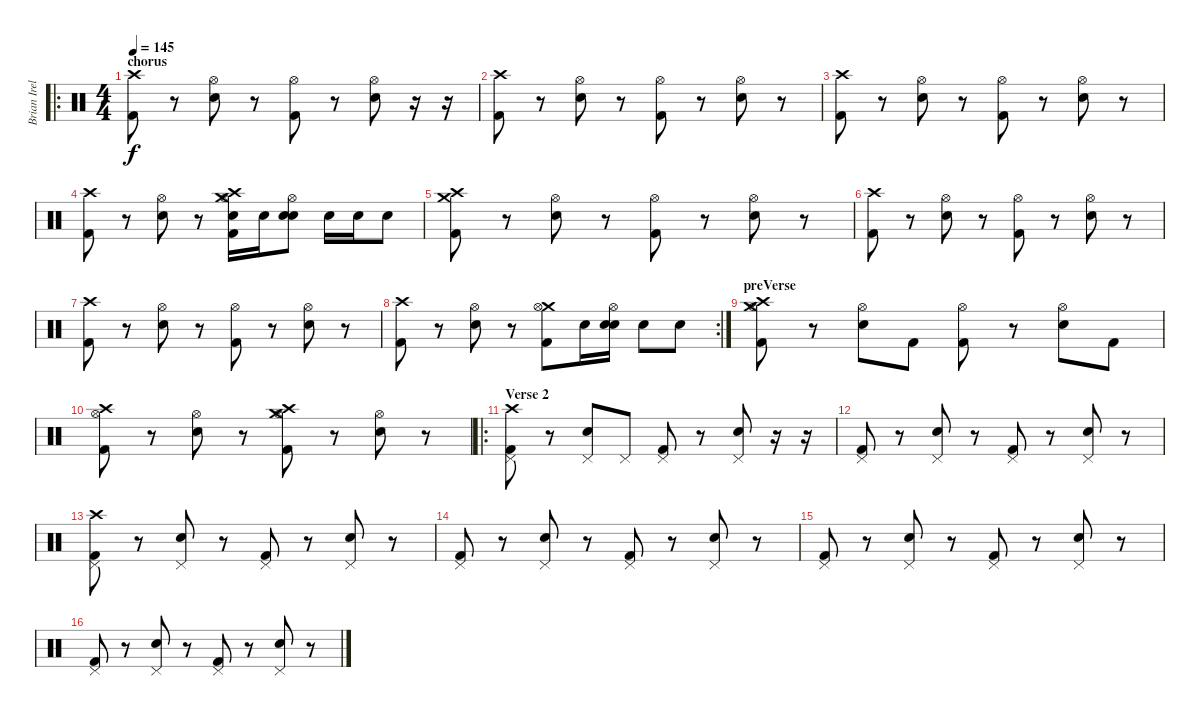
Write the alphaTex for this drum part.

\track ("Brian Ireland" "Brian Irel") {instrument percussion}
\staff {score}
\articulation defaults
\ro
\ts (4 4)
\section ("" "chorus")
\tempo 145
\clef neutral
\ks c
("Crash high (hit)" "Kick (hit) 2").8{dy f} r.8 ("Hi-Hat (open)" "Electric Snare (hit)").8 r.8 ("Hi-Hat (open)" "Kick (hit) 2").8 r.8 ("Hi-Hat (open)" "Electric Snare (hit)").8 r.16 r.16 |
("Crash high (hit)" "Kick (hit) 2").8 r.8 ("Hi-Hat (open)" "Electric Snare (hit)").8 r.8 ("Hi-Hat (open)" "Kick (hit) 2").8 r.8 ("Hi-Hat (open)" "Electric Snare (hit)").8 r.8 |
("Crash high (hit)" "Kick (hit) 2").8 r.8 ("Hi-Hat (open)" "Electric Snare (hit)").8 r.8 ("Hi-Hat (open)" "Kick (hit) 2").8 r.8 ("Hi-Hat (open)" "Electric Snare (hit)").8 r.8 |
("Crash high (hit)" "Kick (hit) 2").8 r.8 ("Hi-Hat (open)" "Electric Snare (hit)").8 r.8 ("Crash medium (hit)" "Crash high (hit)" "Electric Snare (hit)" "Hi-Hat (open)" "Kick (hit) 2").16 "Electric Snare (hit)".16 ("Electric Snare (hit)" "Hi-Hat (open)" "Electric Snare (hit)").8 "Electric Snare (hit)".16 "Electric Snare (hit)".16 "Electric Snare (hit)".8 |
("Crash medium (hit)" "Crash high (hit)" "Kick (hit) 2").8 r.8 ("Hi-Hat (open)" "Electric Snare (hit)").8 r.8 ("Hi-Hat (open)" "Kick (hit) 2").8 r.8 ("Hi-Hat (open)" "Electric Snare (hit)").8 r.8 |
("Crash high (hit)" "Kick (hit) 2").8 r.8 ("Hi-Hat (open)" "Electric Snare (hit)").8 r.8 ("Hi-Hat (open)" "Kick (hit) 2").8 r.8 ("Hi-Hat (open)" "Electric Snare (hit)").8 r.8 |
("Crash high (hit)" "Kick (hit) 2").8 r.8 ("Hi-Hat (open)" "Electric Snare (hit)").8 r.8 ("Hi-Hat (open)" "Kick (hit) 2").8 r.8 ("Hi-Hat (open)" "Electric Snare (hit)").8 r.8 |
\rc 2
("Crash high (hit)" "Kick (hit) 2").8 r.8 ("Hi-Hat (open)" "Electric Snare (hit)").8 r.8 ("Crash medium (hit)" "Hi-Hat (open)" "Kick (hit) 2").8 "Electric Snare (hit)".16 ("Electric Snare (hit)" "Hi-Hat (open)" "Electric Snare (hit)").16 "Electric Snare (hit)".8 "Electric Snare (hit)".8 |
\section ("" "preVerse")
("Crash high (hit)" "Crash medium (hit)" "Hi-Hat (open)" "Kick (hit) 2").8 r.8 ("Hi-Hat (open)" "Electric Snare (hit)").8 "Kick (hit) 2".8 ("Hi-Hat (open)" "Kick (hit) 2").8 r.8 ("Hi-Hat (open)" "Electric Snare (hit)").8 "Kick (hit) 2".8 |
("Crash high (hit)" "Hi-Hat (open)" "Kick (hit) 2").8 r.8 ("Electric Snare (hit)" "Hi-Hat (open)").8 r.8 ("Crash high (hit)" "Crash medium (hit)" "Kick (hit) 2" "Hi-Hat (open)").8 r.8 ("Electric Snare (hit)" "Hi-Hat (open)").8 r.8 |
\ro
\section ("" "Verse 2")
("Crash high (hit)" "Pedal Hi-Hat (hit)" "Kick (hit) 2").8 r.8 ("Pedal Hi-Hat (hit)" "Electric Snare (hit)").8 "Pedal Hi-Hat (hit)".8 ("Pedal Hi-Hat (hit)" "Kick (hit) 2").8 r.8 ("Pedal Hi-Hat (hit)" "Electric Snare (hit)").8 r.16 r.16 |
("Pedal Hi-Hat (hit)" "Kick (hit) 2").8 r.8 ("Pedal Hi-Hat (hit)" "Electric Snare (hit)").8 r.8 ("Pedal Hi-Hat (hit)" "Kick (hit) 2").8 r.8 ("Pedal Hi-Hat (hit)" "Electric Snare (hit)").8 r.8 |
("Crash high (hit)" "Pedal Hi-Hat (hit)" "Kick (hit) 2").8 r.8 ("Pedal Hi-Hat (hit)" "Electric Snare (hit)").8 r.8 ("Pedal Hi-Hat (hit)" "Kick (hit) 2").8 r.8 ("Pedal Hi-Hat (hit)" "Electric Snare (hit)").8 r.8 |
("Pedal Hi-Hat (hit)" "Kick (hit) 2").8 r.8 ("Pedal Hi-Hat (hit)" "Electric Snare (hit)").8 r.8 ("Pedal Hi-Hat (hit)" "Kick (hit) 2").8 r.8 ("Pedal Hi-Hat (hit)" "Electric Snare (hit)").8 r.8 |
("Pedal Hi-Hat (hit)" "Kick (hit) 2").8 r.8 ("Pedal Hi-Hat (hit)" "Electric Snare (hit)").8 r.8 ("Pedal Hi-Hat (hit)" "Kick (hit) 2").8 r.8 ("Pedal Hi-Hat (hit)" "Electric Snare (hit)").8 r.8 |
("Pedal Hi-Hat (hit)" "Kick (hit) 2").8 r.8 ("Pedal Hi-Hat (hit)" "Electric Snare (hit)").8 r.8 ("Pedal Hi-Hat (hit)" "Kick (hit) 2").8 r.8 ("Pedal Hi-Hat (hit)" "Electric Snare (hit)").8 r.8
